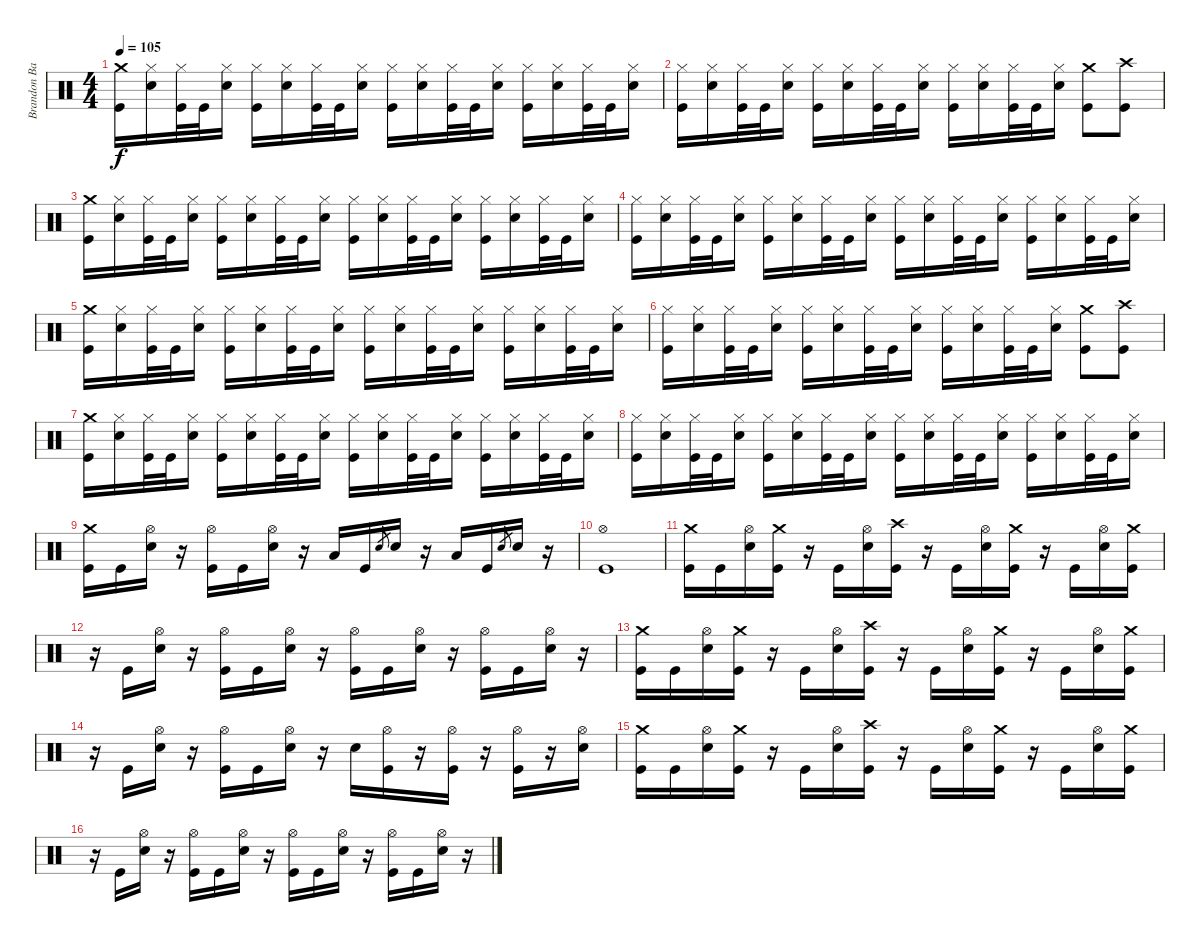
\track ("Brandon Barnes" "Brandon Ba") {instrument percussion}
\staff {score}
\articulation defaults
\ts (4 4)
\tempo 105
\clef neutral
\ks c
("Crash medium (hit)" "Kick (hit)").16{dy f} ("Hi-Hat (closed)" "Electric Snare (hit)").16 ("Hi-Hat (closed)" "Kick (hit)").32 "Kick (hit)".32 ("Hi-Hat (closed)" "Electric Snare (hit)").16 ("Hi-Hat (closed)" "Kick (hit)").16 ("Hi-Hat (closed)" "Electric Snare (hit)").16 ("Hi-Hat (closed)" "Kick (hit)").32 "Kick (hit)".32 ("Hi-Hat (closed)" "Electric Snare (hit)").16 ("Hi-Hat (closed)" "Kick (hit)").16 ("Hi-Hat (closed)" "Electric Snare (hit)").16 ("Hi-Hat (closed)" "Kick (hit)").32 "Kick (hit)".32 ("Hi-Hat (closed)" "Electric Snare (hit)").16 ("Hi-Hat (closed)" "Kick (hit)").16 ("Hi-Hat (closed)" "Electric Snare (hit)").16 ("Hi-Hat (closed)" "Kick (hit)").32 "Kick (hit)".32 ("Hi-Hat (closed)" "Electric Snare (hit)").16 |
("Hi-Hat (closed)" "Kick (hit)").16 ("Hi-Hat (closed)" "Electric Snare (hit)").16 ("Hi-Hat (closed)" "Kick (hit)").32 "Kick (hit)".32 ("Hi-Hat (closed)" "Electric Snare (hit)").16 ("Hi-Hat (closed)" "Kick (hit)").16 ("Hi-Hat (closed)" "Electric Snare (hit)").16 ("Hi-Hat (closed)" "Kick (hit)").32 "Kick (hit)".32 ("Hi-Hat (closed)" "Electric Snare (hit)").16 ("Hi-Hat (closed)" "Kick (hit)").16 ("Hi-Hat (closed)" "Electric Snare (hit)").16 ("Hi-Hat (closed)" "Kick (hit)").32 "Kick (hit)".32 ("Hi-Hat (closed)" "Electric Snare (hit)").16 ("Crash medium (hit)" "Kick (hit)").8 ("Crash high (hit)" "Kick (hit)").8 |
("Crash medium (hit)" "Kick (hit)").16 ("Hi-Hat (closed)" "Electric Snare (hit)").16 ("Hi-Hat (closed)" "Kick (hit)").32 "Kick (hit)".32 ("Hi-Hat (closed)" "Electric Snare (hit)").16 ("Hi-Hat (closed)" "Kick (hit)").16 ("Hi-Hat (closed)" "Electric Snare (hit)").16 ("Hi-Hat (closed)" "Kick (hit)").32 "Kick (hit)".32 ("Hi-Hat (closed)" "Electric Snare (hit)").16 ("Hi-Hat (closed)" "Kick (hit)").16 ("Hi-Hat (closed)" "Electric Snare (hit)").16 ("Hi-Hat (closed)" "Kick (hit)").32 "Kick (hit)".32 ("Hi-Hat (closed)" "Electric Snare (hit)").16 ("Hi-Hat (closed)" "Kick (hit)").16 ("Hi-Hat (closed)" "Electric Snare (hit)").16 ("Hi-Hat (closed)" "Kick (hit)").32 "Kick (hit)".32 ("Hi-Hat (closed)" "Electric Snare (hit)").16 |
("Hi-Hat (closed)" "Kick (hit)").16 ("Hi-Hat (closed)" "Electric Snare (hit)").16 ("Hi-Hat (closed)" "Kick (hit)").32 "Kick (hit)".32 ("Hi-Hat (closed)" "Electric Snare (hit)").16 ("Hi-Hat (closed)" "Kick (hit)").16 ("Hi-Hat (closed)" "Electric Snare (hit)").16 ("Hi-Hat (closed)" "Kick (hit)").32 "Kick (hit)".32 ("Hi-Hat (closed)" "Electric Snare (hit)").16 ("Hi-Hat (closed)" "Kick (hit)").16 ("Hi-Hat (closed)" "Electric Snare (hit)").16 ("Hi-Hat (closed)" "Kick (hit)").32 "Kick (hit)".32 ("Hi-Hat (closed)" "Electric Snare (hit)").16 ("Hi-Hat (closed)" "Kick (hit)").16 ("Hi-Hat (closed)" "Electric Snare (hit)").16 ("Hi-Hat (closed)" "Kick (hit)").32 "Kick (hit)".32 ("Hi-Hat (closed)" "Electric Snare (hit)").16 |
("Crash medium (hit)" "Kick (hit)").16 ("Hi-Hat (closed)" "Electric Snare (hit)").16 ("Hi-Hat (closed)" "Kick (hit)").32 "Kick (hit)".32 ("Hi-Hat (closed)" "Electric Snare (hit)").16 ("Hi-Hat (closed)" "Kick (hit)").16 ("Hi-Hat (closed)" "Electric Snare (hit)").16 ("Hi-Hat (closed)" "Kick (hit)").32 "Kick (hit)".32 ("Hi-Hat (closed)" "Electric Snare (hit)").16 ("Hi-Hat (closed)" "Kick (hit)").16 ("Hi-Hat (closed)" "Electric Snare (hit)").16 ("Hi-Hat (closed)" "Kick (hit)").32 "Kick (hit)".32 ("Hi-Hat (closed)" "Electric Snare (hit)").16 ("Hi-Hat (closed)" "Kick (hit)").16 ("Hi-Hat (closed)" "Electric Snare (hit)").16 ("Hi-Hat (closed)" "Kick (hit)").32 "Kick (hit)".32 ("Hi-Hat (closed)" "Electric Snare (hit)").16 |
("Hi-Hat (closed)" "Kick (hit)").16 ("Hi-Hat (closed)" "Electric Snare (hit)").16 ("Hi-Hat (closed)" "Kick (hit)").32 "Kick (hit)".32 ("Hi-Hat (closed)" "Electric Snare (hit)").16 ("Hi-Hat (closed)" "Kick (hit)").16 ("Hi-Hat (closed)" "Electric Snare (hit)").16 ("Hi-Hat (closed)" "Kick (hit)").32 "Kick (hit)".32 ("Hi-Hat (closed)" "Electric Snare (hit)").16 ("Hi-Hat (closed)" "Kick (hit)").16 ("Hi-Hat (closed)" "Electric Snare (hit)").16 ("Hi-Hat (closed)" "Kick (hit)").32 "Kick (hit)".32 ("Hi-Hat (closed)" "Electric Snare (hit)").16 ("Crash medium (hit)" "Kick (hit)").8 ("Crash high (hit)" "Kick (hit)").8 |
("Crash medium (hit)" "Kick (hit)").16 ("Hi-Hat (closed)" "Electric Snare (hit)").16 ("Hi-Hat (closed)" "Kick (hit)").32 "Kick (hit)".32 ("Hi-Hat (closed)" "Electric Snare (hit)").16 ("Hi-Hat (closed)" "Kick (hit)").16 ("Hi-Hat (closed)" "Electric Snare (hit)").16 ("Hi-Hat (closed)" "Kick (hit)").32 "Kick (hit)".32 ("Hi-Hat (closed)" "Electric Snare (hit)").16 ("Hi-Hat (closed)" "Kick (hit)").16 ("Hi-Hat (closed)" "Electric Snare (hit)").16 ("Hi-Hat (closed)" "Kick (hit)").32 "Kick (hit)".32 ("Hi-Hat (closed)" "Electric Snare (hit)").16 ("Hi-Hat (closed)" "Kick (hit)").16 ("Hi-Hat (closed)" "Electric Snare (hit)").16 ("Hi-Hat (closed)" "Kick (hit)").32 "Kick (hit)".32 ("Hi-Hat (closed)" "Electric Snare (hit)").16 |
("Hi-Hat (closed)" "Kick (hit)").16 ("Hi-Hat (closed)" "Electric Snare (hit)").16 ("Hi-Hat (closed)" "Kick (hit)").32 "Kick (hit)".32 ("Hi-Hat (closed)" "Electric Snare (hit)").16 ("Hi-Hat (closed)" "Kick (hit)").16 ("Hi-Hat (closed)" "Electric Snare (hit)").16 ("Hi-Hat (closed)" "Kick (hit)").32 "Kick (hit)".32 ("Hi-Hat (closed)" "Electric Snare (hit)").16 ("Hi-Hat (closed)" "Kick (hit)").16 ("Hi-Hat (closed)" "Electric Snare (hit)").16 ("Hi-Hat (closed)" "Kick (hit)").32 "Kick (hit)".32 ("Hi-Hat (closed)" "Electric Snare (hit)").16 ("Hi-Hat (closed)" "Kick (hit)").16 ("Hi-Hat (closed)" "Electric Snare (hit)").16 ("Hi-Hat (closed)" "Kick (hit)").32 "Kick (hit)".32 ("Hi-Hat (closed)" "Electric Snare (hit)").16 |
("Crash medium (hit)" "Kick (hit)").16 "Kick (hit)".16 ("Hi-Hat (open)" "Electric Snare (hit)").16 r.16 ("Hi-Hat (open)" "Kick (hit)").16 "Kick (hit)".16 ("Hi-Hat (open)" "Electric Snare (hit)").16 r.16 "Low Tom (hit)".16 "Kick (hit)".16 "Electric Snare (hit)".8{gr} "Electric Snare (hit)".16 r.16 "Low Tom (hit)".16 "Kick (hit)".16 "Electric Snare (hit)".8{gr} "Electric Snare (hit)".16 r.16 |
("Hi-Hat (open)" "Kick (hit)").1 |
("Crash medium (hit)" "Kick (hit)").16 "Kick (hit)".16 ("Hi-Hat (open)" "Electric Snare (hit)").16 ("Crash medium (hit)" "Kick (hit)").16 r.16 "Kick (hit)".16 ("Hi-Hat (open)" "Electric Snare (hit)").16 ("Crash high (hit)" "Kick (hit)").16 r.16 "Kick (hit)".16 ("Hi-Hat (open)" "Electric Snare (hit)").16 ("Crash medium (hit)" "Kick (hit)").16 r.16 "Kick (hit)".16 ("Hi-Hat (open)" "Electric Snare (hit)").16 ("Crash medium (hit)" "Kick (hit)").16 |
r.16 "Kick (hit)".16 ("Hi-Hat (open)" "Electric Snare (hit)").16 r.16 ("Hi-Hat (open)" "Kick (hit)").16 "Kick (hit)".16 ("Hi-Hat (open)" "Electric Snare (hit)").16 r.16 ("Hi-Hat (open)" "Kick (hit)").16 "Kick (hit)".16 ("Hi-Hat (open)" "Electric Snare (hit)").16 r.16 ("Hi-Hat (open)" "Kick (hit)").16 "Kick (hit)".16 ("Hi-Hat (open)" "Electric Snare (hit)").16 r.16 |
("Crash medium (hit)" "Kick (hit)").16 "Kick (hit)".16 ("Hi-Hat (open)" "Electric Snare (hit)").16 ("Crash medium (hit)" "Kick (hit)").16 r.16 "Kick (hit)".16 ("Hi-Hat (open)" "Electric Snare (hit)").16 ("Crash high (hit)" "Kick (hit)").16 r.16 "Kick (hit)".16 ("Hi-Hat (open)" "Electric Snare (hit)").16 ("Crash medium (hit)" "Kick (hit)").16 r.16 "Kick (hit)".16 ("Hi-Hat (open)" "Electric Snare (hit)").16 ("Crash medium (hit)" "Kick (hit)").16 |
r.16 "Kick (hit)".16 ("Hi-Hat (open)" "Electric Snare (hit)").16 r.16 ("Hi-Hat (open)" "Kick (hit)").16 "Kick (hit)".16 ("Hi-Hat (open)" "Electric Snare (hit)").16 r.16 "Electric Snare (hit)".16 ("Hi-Hat (open)" "Kick (hit)").16 r.16 ("Hi-Hat (open)" "Kick (hit)").16 r.16 ("Hi-Hat (open)" "Kick (hit)").16 r.16 ("Hi-Hat (open)" "Electric Snare (hit)").16 |
("Crash medium (hit)" "Kick (hit)").16 "Kick (hit)".16 ("Hi-Hat (open)" "Electric Snare (hit)").16 ("Crash medium (hit)" "Kick (hit)").16 r.16 "Kick (hit)".16 ("Hi-Hat (open)" "Electric Snare (hit)").16 ("Crash high (hit)" "Kick (hit)").16 r.16 "Kick (hit)".16 ("Hi-Hat (open)" "Electric Snare (hit)").16 ("Crash medium (hit)" "Kick (hit)").16 r.16 "Kick (hit)".16 ("Hi-Hat (open)" "Electric Snare (hit)").16 ("Crash medium (hit)" "Kick (hit)").16 |
r.16 "Kick (hit)".16 ("Hi-Hat (open)" "Electric Snare (hit)").16 r.16 ("Hi-Hat (open)" "Kick (hit)").16 "Kick (hit)".16 ("Hi-Hat (open)" "Electric Snare (hit)").16 r.16 ("Hi-Hat (open)" "Kick (hit)").16 "Kick (hit)".16 ("Hi-Hat (open)" "Electric Snare (hit)").16 r.16 ("Hi-Hat (open)" "Kick (hit)").16 "Kick (hit)".16 ("Hi-Hat (open)" "Electric Snare (hit)").16 r.16
